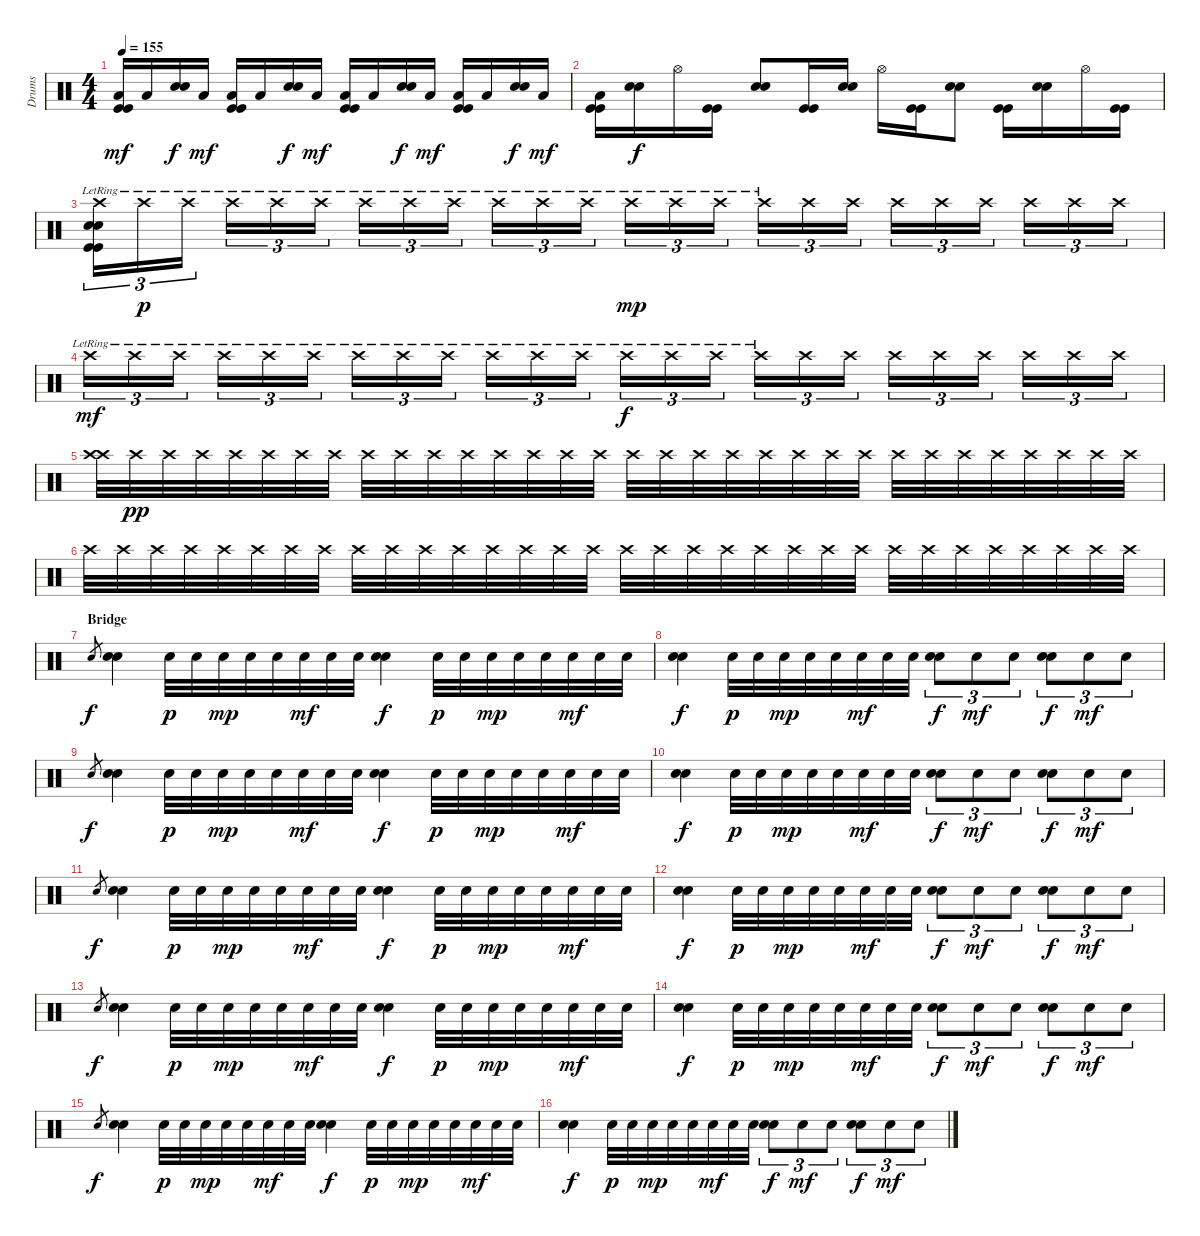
\track ("Drums" "Drums") {instrument percussion}
\staff {score}
\articulation defaults
\ts (4 4)
\tempo 155
\clef neutral
\ks c
("Low Tom (hit)" "Kick (hit)" "Kick (hit)").16{dy mf} "Low Tom (hit)".16 ("Snare (hit) 2" "Snare (hit) 2").16{dy f} "Low Tom (hit)".16{dy mf} ("Low Tom (hit)" "Kick (hit)" "Kick (hit)").16 "Low Tom (hit)".16 ("Snare (hit) 2" "Snare (hit) 2").16{dy f} "Low Tom (hit)".16{dy mf} ("Low Tom (hit)" "Kick (hit)" "Kick (hit)").16 "Low Tom (hit)".16 ("Snare (hit) 2" "Snare (hit) 2").16{dy f} "Low Tom (hit)".16{dy mf} ("Low Tom (hit)" "Kick (hit)" "Kick (hit)").16 "Low Tom (hit)".16 ("Snare (hit) 2" "Snare (hit) 2").16{dy f} "Low Tom (hit)".16{dy mf} |
("Low Tom (hit)" "Kick (hit)" "Kick (hit)").16 ("Snare (hit) 2" "Snare (hit) 2").16{dy f} "Hi-Hat (open)".16 ("Kick (hit)" "Kick (hit)").16 ("Snare (hit) 2" "Snare (hit) 2").8 ("Kick (hit)" "Kick (hit)").16 ("Snare (hit) 2" "Snare (hit) 2").16 "Hi-Hat (open)".16 ("Kick (hit)" "Kick (hit)").16 ("Snare (hit) 2" "Snare (hit) 2").8 ("Kick (hit)" "Kick (hit)").16 ("Snare (hit) 2" "Snare (hit) 2").16 "Hi-Hat (open)".16 ("Kick (hit)" "Kick (hit)").16 |
("Crash high (hit)"{lr} "Snare (hit) 2" "Snare (hit) 2" "Kick (hit)" "Kick (hit)").16{tu (3 2)} "Crash high (hit)"{lr}.16{tu (3 2) dy p} "Crash high (hit)"{lr}.16{tu (3 2)} "Crash high (hit)"{lr}.16{tu (3 2)} "Crash high (hit)"{lr}.16{tu (3 2)} "Crash high (hit)"{lr}.16{tu (3 2)} "Crash high (hit)"{lr}.16{tu (3 2)} "Crash high (hit)"{lr}.16{tu (3 2)} "Crash high (hit)"{lr}.16{tu (3 2)} "Crash high (hit)"{lr}.16{tu (3 2)} "Crash high (hit)"{lr}.16{tu (3 2)} "Crash high (hit)"{lr}.16{tu (3 2)} "Crash high (hit)"{lr}.16{tu (3 2) dy mp} "Crash high (hit)"{lr}.16{tu (3 2)} "Crash high (hit)"{lr}.16{tu (3 2)} "Crash high (hit)"{lr}.16{tu (3 2)} "Crash high (hit)".16{tu (3 2)} "Crash high (hit)".16{tu (3 2)} "Crash high (hit)".16{tu (3 2)} "Crash high (hit)".16{tu (3 2)} "Crash high (hit)".16{tu (3 2)} "Crash high (hit)".16{tu (3 2)} "Crash high (hit)".16{tu (3 2)} "Crash high (hit)".16{tu (3 2)} |
"Crash high (hit)"{lr}.16{tu (3 2) dy mf} "Crash high (hit)"{lr}.16{tu (3 2)} "Crash high (hit)"{lr}.16{tu (3 2)} "Crash high (hit)"{lr}.16{tu (3 2)} "Crash high (hit)"{lr}.16{tu (3 2)} "Crash high (hit)"{lr}.16{tu (3 2)} "Crash high (hit)"{lr}.16{tu (3 2)} "Crash high (hit)"{lr}.16{tu (3 2)} "Crash high (hit)"{lr}.16{tu (3 2)} "Crash high (hit)"{lr}.16{tu (3 2)} "Crash high (hit)"{lr}.16{tu (3 2)} "Crash high (hit)"{lr}.16{tu (3 2)} "Crash high (hit)"{lr}.16{tu (3 2) dy f} "Crash high (hit)"{lr}.16{tu (3 2)} "Crash high (hit)"{lr}.16{tu (3 2)} "Crash high (hit)"{lr}.16{tu (3 2)} "Crash high (hit)".16{tu (3 2)} "Crash high (hit)".16{tu (3 2)} "Crash high (hit)".16{tu (3 2)} "Crash high (hit)".16{tu (3 2)} "Crash high (hit)".16{tu (3 2)} "Crash high (hit)".16{tu (3 2)} "Crash high (hit)".16{tu (3 2)} "Crash high (hit)".16{tu (3 2)} |
("Crash high (hit)" "Crash high (hit)").32{volume 8} "Crash high (hit)".32{dy pp} "Crash high (hit)".32 "Crash high (hit)".32 "Crash high (hit)".32 "Crash high (hit)".32 "Crash high (hit)".32 "Crash high (hit)".32 "Crash high (hit)".32 "Crash high (hit)".32 "Crash high (hit)".32 "Crash high (hit)".32 "Crash high (hit)".32 "Crash high (hit)".32 "Crash high (hit)".32 "Crash high (hit)".32 "Crash high (hit)".32 "Crash high (hit)".32 "Crash high (hit)".32 "Crash high (hit)".32 "Crash high (hit)".32 "Crash high (hit)".32 "Crash high (hit)".32 "Crash high (hit)".32 "Crash high (hit)".32 "Crash high (hit)".32 "Crash high (hit)".32 "Crash high (hit)".32 "Crash high (hit)".32 "Crash high (hit)".32 "Crash high (hit)".32 "Crash high (hit)".32 |
"Crash high (hit)".32 "Crash high (hit)".32 "Crash high (hit)".32 "Crash high (hit)".32 "Crash high (hit)".32 "Crash high (hit)".32 "Crash high (hit)".32 "Crash high (hit)".32 "Crash high (hit)".32 "Crash high (hit)".32 "Crash high (hit)".32 "Crash high (hit)".32 "Crash high (hit)".32 "Crash high (hit)".32 "Crash high (hit)".32 "Crash high (hit)".32 "Crash high (hit)".32 "Crash high (hit)".32 "Crash high (hit)".32 "Crash high (hit)".32 "Crash high (hit)".32 "Crash high (hit)".32 "Crash high (hit)".32 "Crash high (hit)".32 "Crash high (hit)".32 "Crash high (hit)".32 "Crash high (hit)".32 "Crash high (hit)".32 "Crash high (hit)".32 "Crash high (hit)".32 "Crash high (hit)".32 "Crash high (hit)".32 |
\section ("" "Bridge")
"Snare (hit) 2".8{gr dy f} ("Snare (hit) 2" "Snare (hit) 2").4{volume 9} "Snare (hit) 2".32{dy p} "Snare (hit) 2".32 "Snare (hit) 2".32{dy mp} "Snare (hit) 2".32 "Snare (hit) 2".32 "Snare (hit) 2".32{dy mf} "Snare (hit) 2".32 "Snare (hit) 2".32 ("Snare (hit) 2" "Snare (hit) 2").4{dy f} "Snare (hit) 2".32{dy p} "Snare (hit) 2".32 "Snare (hit) 2".32{dy mp} "Snare (hit) 2".32 "Snare (hit) 2".32 "Snare (hit) 2".32{dy mf} "Snare (hit) 2".32 "Snare (hit) 2".32 |
("Snare (hit) 2" "Snare (hit) 2").4{dy f} "Snare (hit) 2".32{dy p} "Snare (hit) 2".32 "Snare (hit) 2".32{dy mp} "Snare (hit) 2".32 "Snare (hit) 2".32 "Snare (hit) 2".32{dy mf} "Snare (hit) 2".32 "Snare (hit) 2".32 ("Snare (hit) 2" "Snare (hit) 2").8{tu (3 2) dy f} "Snare (hit) 2".8{tu (3 2) dy mf} "Snare (hit) 2".8{tu (3 2)} ("Snare (hit) 2" "Snare (hit) 2").8{tu (3 2) dy f} "Snare (hit) 2".8{tu (3 2) dy mf} "Snare (hit) 2".8{tu (3 2)} |
"Snare (hit) 2".8{gr dy f} ("Snare (hit) 2" "Snare (hit) 2").4 "Snare (hit) 2".32{dy p} "Snare (hit) 2".32 "Snare (hit) 2".32{dy mp} "Snare (hit) 2".32 "Snare (hit) 2".32 "Snare (hit) 2".32{dy mf} "Snare (hit) 2".32 "Snare (hit) 2".32 ("Snare (hit) 2" "Snare (hit) 2").4{dy f} "Snare (hit) 2".32{dy p} "Snare (hit) 2".32 "Snare (hit) 2".32{dy mp} "Snare (hit) 2".32 "Snare (hit) 2".32 "Snare (hit) 2".32{dy mf} "Snare (hit) 2".32 "Snare (hit) 2".32 |
("Snare (hit) 2" "Snare (hit) 2").4{dy f} "Snare (hit) 2".32{dy p} "Snare (hit) 2".32 "Snare (hit) 2".32{dy mp} "Snare (hit) 2".32 "Snare (hit) 2".32 "Snare (hit) 2".32{dy mf} "Snare (hit) 2".32 "Snare (hit) 2".32 ("Snare (hit) 2" "Snare (hit) 2").8{tu (3 2) dy f} "Snare (hit) 2".8{tu (3 2) dy mf} "Snare (hit) 2".8{tu (3 2)} ("Snare (hit) 2" "Snare (hit) 2").8{tu (3 2) dy f} "Snare (hit) 2".8{tu (3 2) dy mf} "Snare (hit) 2".8{tu (3 2)} |
"Snare (hit) 2".8{gr dy f} ("Snare (hit) 2" "Snare (hit) 2").4 "Snare (hit) 2".32{dy p} "Snare (hit) 2".32 "Snare (hit) 2".32{dy mp} "Snare (hit) 2".32 "Snare (hit) 2".32 "Snare (hit) 2".32{dy mf} "Snare (hit) 2".32 "Snare (hit) 2".32 ("Snare (hit) 2" "Snare (hit) 2").4{dy f} "Snare (hit) 2".32{dy p} "Snare (hit) 2".32 "Snare (hit) 2".32{dy mp} "Snare (hit) 2".32 "Snare (hit) 2".32 "Snare (hit) 2".32{dy mf} "Snare (hit) 2".32 "Snare (hit) 2".32 |
("Snare (hit) 2" "Snare (hit) 2").4{dy f} "Snare (hit) 2".32{dy p} "Snare (hit) 2".32 "Snare (hit) 2".32{dy mp} "Snare (hit) 2".32 "Snare (hit) 2".32 "Snare (hit) 2".32{dy mf} "Snare (hit) 2".32 "Snare (hit) 2".32 ("Snare (hit) 2" "Snare (hit) 2").8{tu (3 2) dy f} "Snare (hit) 2".8{tu (3 2) dy mf} "Snare (hit) 2".8{tu (3 2)} ("Snare (hit) 2" "Snare (hit) 2").8{tu (3 2) dy f} "Snare (hit) 2".8{tu (3 2) dy mf} "Snare (hit) 2".8{tu (3 2)} |
"Snare (hit) 2".8{gr dy f} ("Snare (hit) 2" "Snare (hit) 2").4 "Snare (hit) 2".32{dy p} "Snare (hit) 2".32 "Snare (hit) 2".32{dy mp} "Snare (hit) 2".32 "Snare (hit) 2".32 "Snare (hit) 2".32{dy mf} "Snare (hit) 2".32 "Snare (hit) 2".32 ("Snare (hit) 2" "Snare (hit) 2").4{dy f} "Snare (hit) 2".32{dy p} "Snare (hit) 2".32 "Snare (hit) 2".32{dy mp} "Snare (hit) 2".32 "Snare (hit) 2".32 "Snare (hit) 2".32{dy mf} "Snare (hit) 2".32 "Snare (hit) 2".32 |
("Snare (hit) 2" "Snare (hit) 2").4{dy f} "Snare (hit) 2".32{dy p} "Snare (hit) 2".32 "Snare (hit) 2".32{dy mp} "Snare (hit) 2".32 "Snare (hit) 2".32 "Snare (hit) 2".32{dy mf} "Snare (hit) 2".32 "Snare (hit) 2".32 ("Snare (hit) 2" "Snare (hit) 2").8{tu (3 2) dy f} "Snare (hit) 2".8{tu (3 2) dy mf} "Snare (hit) 2".8{tu (3 2)} ("Snare (hit) 2" "Snare (hit) 2").8{tu (3 2) dy f} "Snare (hit) 2".8{tu (3 2) dy mf} "Snare (hit) 2".8{tu (3 2)} |
"Snare (hit) 2".8{gr dy f} ("Snare (hit) 2" "Snare (hit) 2").4 "Snare (hit) 2".32{dy p} "Snare (hit) 2".32 "Snare (hit) 2".32{dy mp} "Snare (hit) 2".32 "Snare (hit) 2".32 "Snare (hit) 2".32{dy mf} "Snare (hit) 2".32 "Snare (hit) 2".32 ("Snare (hit) 2" "Snare (hit) 2").4{dy f} "Snare (hit) 2".32{dy p} "Snare (hit) 2".32 "Snare (hit) 2".32{dy mp} "Snare (hit) 2".32 "Snare (hit) 2".32 "Snare (hit) 2".32{dy mf} "Snare (hit) 2".32 "Snare (hit) 2".32 |
("Snare (hit) 2" "Snare (hit) 2").4{dy f} "Snare (hit) 2".32{dy p} "Snare (hit) 2".32 "Snare (hit) 2".32{dy mp} "Snare (hit) 2".32 "Snare (hit) 2".32 "Snare (hit) 2".32{dy mf} "Snare (hit) 2".32 "Snare (hit) 2".32 ("Snare (hit) 2" "Snare (hit) 2").8{tu (3 2) dy f} "Snare (hit) 2".8{tu (3 2) dy mf} "Snare (hit) 2".8{tu (3 2)} ("Snare (hit) 2" "Snare (hit) 2").8{tu (3 2) dy f} "Snare (hit) 2".8{tu (3 2) dy mf} "Snare (hit) 2".8{tu (3 2)}
